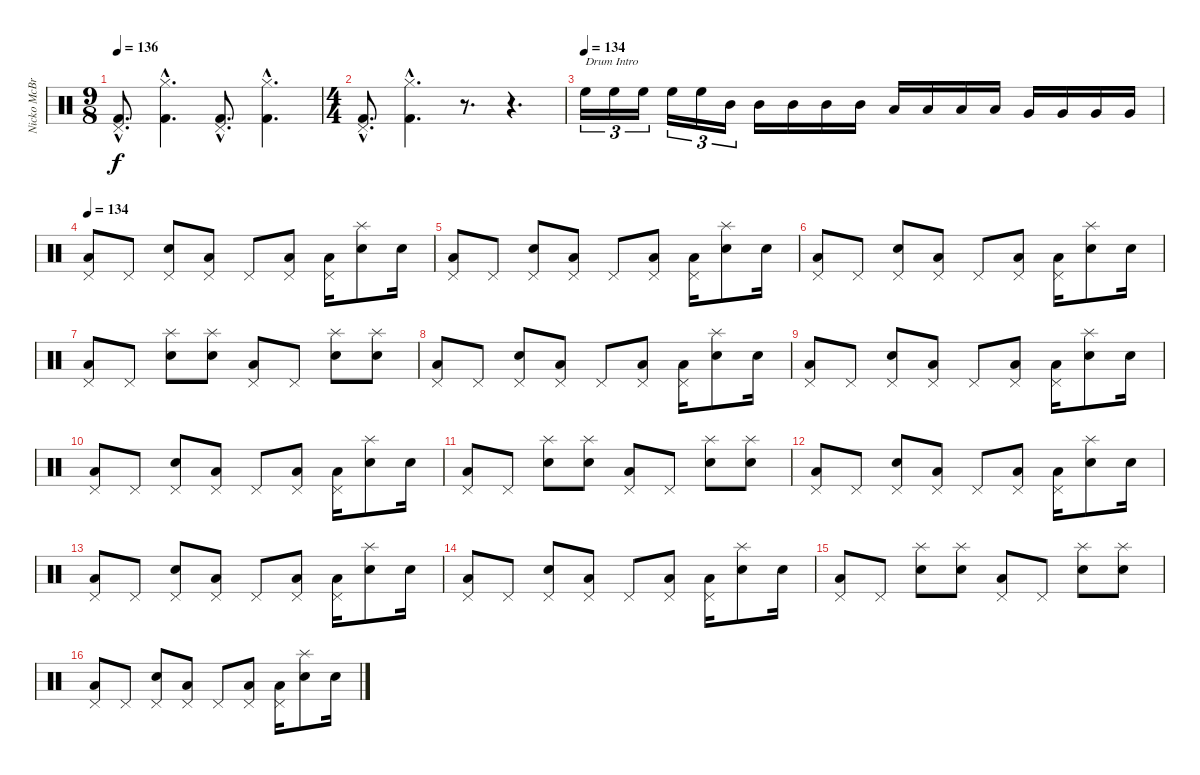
\track ("Nicko McBrian" "Nicko McBr") {instrument percussion}
\staff {score}
\articulation defaults
\ts (9 8)
\tempo 136
\clef neutral
\ks c
("Pedal Hi-Hat (hit)"{hac} "Kick (hit) 2"{hac}).8{d dy f} ("Hi-Hat (closed)"{hac} "Kick (hit) 2"{hac}).4{d} ("Pedal Hi-Hat (hit)"{hac} "Kick (hit) 2"{hac}).8{d} ("Hi-Hat (closed)"{hac} "Kick (hit) 2"{hac}).4{d} |
\ts (4 4)
("Pedal Hi-Hat (hit)"{hac} "Kick (hit) 2"{hac}).8{d} ("Hi-Hat (closed)"{hac} "Kick (hit) 2"{hac}).4{d} r.8{d} r.4{d} |
\tempo (134)
"High Floor Tom (hit)".16{tu (3 2) txt "Drum Intro"} "High Floor Tom (hit)".16{tu (3 2)} "High Floor Tom (hit)".16{tu (3 2)} "High Floor Tom (hit)".16{tu (3 2)} "High Floor Tom (hit)".16{tu (3 2)} "Mid Tom (hit)".16{tu (3 2)} "Mid Tom (hit)".16 "Mid Tom (hit)".16 "Mid Tom (hit)".16 "Mid Tom (hit)".16 "Low Tom (hit)".16 "Low Tom (hit)".16 "Low Tom (hit)".16 "Low Tom (hit)".16 "Very Low Tom (hit)".16 "Very Low Tom (hit)".16 "Very Low Tom (hit)".16 "Very Low Tom (hit)".16 |
\tempo 134
("Low Floor Tom (hit)" "Pedal Hi-Hat (hit)").8 "Pedal Hi-Hat (hit)".8 ("Electric Snare (hit)" "Pedal Hi-Hat (hit)").8 ("Low Floor Tom (hit)" "Pedal Hi-Hat (hit)").8 "Pedal Hi-Hat (hit)".8 ("Low Floor Tom (hit)" "Pedal Hi-Hat (hit)").8 ("Low Floor Tom (hit)" "Pedal Hi-Hat (hit)").16 ("Electric Snare (hit)" "Splash (hit)").8 "Electric Snare (hit)".16 |
("Low Floor Tom (hit)" "Pedal Hi-Hat (hit)").8 "Pedal Hi-Hat (hit)".8 ("Electric Snare (hit)" "Pedal Hi-Hat (hit)").8 ("Low Floor Tom (hit)" "Pedal Hi-Hat (hit)").8 "Pedal Hi-Hat (hit)".8 ("Low Floor Tom (hit)" "Pedal Hi-Hat (hit)").8 ("Low Floor Tom (hit)" "Pedal Hi-Hat (hit)").16 ("Electric Snare (hit)" "Splash (hit)").8 "Electric Snare (hit)".16 |
("Low Floor Tom (hit)" "Pedal Hi-Hat (hit)").8 "Pedal Hi-Hat (hit)".8 ("Electric Snare (hit)" "Pedal Hi-Hat (hit)").8 ("Low Floor Tom (hit)" "Pedal Hi-Hat (hit)").8 "Pedal Hi-Hat (hit)".8 ("Low Floor Tom (hit)" "Pedal Hi-Hat (hit)").8 ("Low Floor Tom (hit)" "Pedal Hi-Hat (hit)").16 ("Electric Snare (hit)" "Splash (hit)").8 "Electric Snare (hit)".16 |
("Low Floor Tom (hit)" "Pedal Hi-Hat (hit)").8 "Pedal Hi-Hat (hit)".8 ("Electric Snare (hit)" "Splash (hit)").8 ("Electric Snare (hit)" "Splash (hit)").8 ("Low Floor Tom (hit)" "Pedal Hi-Hat (hit)").8 "Pedal Hi-Hat (hit)".8 ("Electric Snare (hit)" "Splash (hit)").8 ("Electric Snare (hit)" "Splash (hit)").8 |
("Low Floor Tom (hit)" "Pedal Hi-Hat (hit)").8 "Pedal Hi-Hat (hit)".8 ("Electric Snare (hit)" "Pedal Hi-Hat (hit)").8 ("Low Floor Tom (hit)" "Pedal Hi-Hat (hit)").8 "Pedal Hi-Hat (hit)".8 ("Low Floor Tom (hit)" "Pedal Hi-Hat (hit)").8 ("Low Floor Tom (hit)" "Pedal Hi-Hat (hit)").16 ("Electric Snare (hit)" "Splash (hit)").8 "Electric Snare (hit)".16 |
("Low Floor Tom (hit)" "Pedal Hi-Hat (hit)").8 "Pedal Hi-Hat (hit)".8 ("Electric Snare (hit)" "Pedal Hi-Hat (hit)").8 ("Low Floor Tom (hit)" "Pedal Hi-Hat (hit)").8 "Pedal Hi-Hat (hit)".8 ("Low Floor Tom (hit)" "Pedal Hi-Hat (hit)").8 ("Low Floor Tom (hit)" "Pedal Hi-Hat (hit)").16 ("Electric Snare (hit)" "Splash (hit)").8 "Electric Snare (hit)".16 |
("Low Floor Tom (hit)" "Pedal Hi-Hat (hit)").8 "Pedal Hi-Hat (hit)".8 ("Electric Snare (hit)" "Pedal Hi-Hat (hit)").8 ("Low Floor Tom (hit)" "Pedal Hi-Hat (hit)").8 "Pedal Hi-Hat (hit)".8 ("Low Floor Tom (hit)" "Pedal Hi-Hat (hit)").8 ("Low Floor Tom (hit)" "Pedal Hi-Hat (hit)").16 ("Electric Snare (hit)" "Splash (hit)").8 "Electric Snare (hit)".16 |
("Low Floor Tom (hit)" "Pedal Hi-Hat (hit)").8 "Pedal Hi-Hat (hit)".8 ("Electric Snare (hit)" "Splash (hit)").8 ("Electric Snare (hit)" "Splash (hit)").8 ("Low Floor Tom (hit)" "Pedal Hi-Hat (hit)").8 "Pedal Hi-Hat (hit)".8 ("Electric Snare (hit)" "Splash (hit)").8 ("Electric Snare (hit)" "Splash (hit)").8 |
("Low Floor Tom (hit)" "Pedal Hi-Hat (hit)").8 "Pedal Hi-Hat (hit)".8 ("Electric Snare (hit)" "Pedal Hi-Hat (hit)").8 ("Low Floor Tom (hit)" "Pedal Hi-Hat (hit)").8 "Pedal Hi-Hat (hit)".8 ("Low Floor Tom (hit)" "Pedal Hi-Hat (hit)").8 ("Low Floor Tom (hit)" "Pedal Hi-Hat (hit)").16 ("Electric Snare (hit)" "Splash (hit)").8 "Electric Snare (hit)".16 |
("Low Floor Tom (hit)" "Pedal Hi-Hat (hit)").8 "Pedal Hi-Hat (hit)".8 ("Electric Snare (hit)" "Pedal Hi-Hat (hit)").8 ("Low Floor Tom (hit)" "Pedal Hi-Hat (hit)").8 "Pedal Hi-Hat (hit)".8 ("Low Floor Tom (hit)" "Pedal Hi-Hat (hit)").8 ("Low Floor Tom (hit)" "Pedal Hi-Hat (hit)").16 ("Electric Snare (hit)" "Splash (hit)").8 "Electric Snare (hit)".16 |
("Low Floor Tom (hit)" "Pedal Hi-Hat (hit)").8 "Pedal Hi-Hat (hit)".8 ("Electric Snare (hit)" "Pedal Hi-Hat (hit)").8 ("Low Floor Tom (hit)" "Pedal Hi-Hat (hit)").8 "Pedal Hi-Hat (hit)".8 ("Low Floor Tom (hit)" "Pedal Hi-Hat (hit)").8 ("Low Floor Tom (hit)" "Pedal Hi-Hat (hit)").16 ("Electric Snare (hit)" "Splash (hit)").8 "Electric Snare (hit)".16 |
("Low Floor Tom (hit)" "Pedal Hi-Hat (hit)").8 "Pedal Hi-Hat (hit)".8 ("Electric Snare (hit)" "Splash (hit)").8 ("Electric Snare (hit)" "Splash (hit)").8 ("Low Floor Tom (hit)" "Pedal Hi-Hat (hit)").8 "Pedal Hi-Hat (hit)".8 ("Electric Snare (hit)" "Splash (hit)").8 ("Electric Snare (hit)" "Splash (hit)").8 |
("Low Floor Tom (hit)" "Pedal Hi-Hat (hit)").8 "Pedal Hi-Hat (hit)".8 ("Electric Snare (hit)" "Pedal Hi-Hat (hit)").8 ("Low Floor Tom (hit)" "Pedal Hi-Hat (hit)").8 "Pedal Hi-Hat (hit)".8 ("Low Floor Tom (hit)" "Pedal Hi-Hat (hit)").8 ("Low Floor Tom (hit)" "Pedal Hi-Hat (hit)").16 ("Electric Snare (hit)" "Splash (hit)").8 "Electric Snare (hit)".16
